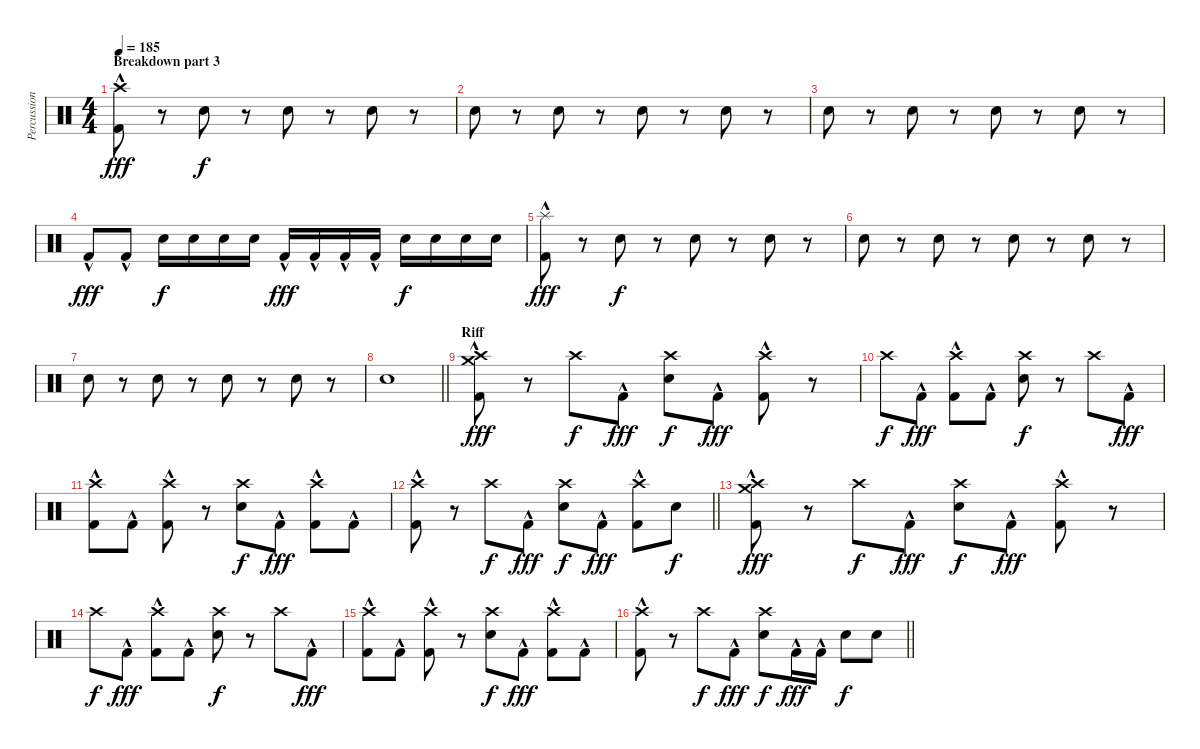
\track ("Percussion" "Percussion") {instrument percussion}
\staff {score}
\articulation defaults
\ts (4 4)
\section ("" "Breakdown part 3")
\tempo 185
\clef neutral
\ks c
("Crash high (hit)" "Kick (hit) 2"{hac}).8{dy fff} r.8 "Snare (hit) 2".8{dy f} r.8 "Snare (hit) 2".8 r.8 "Snare (hit) 2".8 r.8 |
"Snare (hit) 2".8 r.8 "Snare (hit) 2".8 r.8 "Snare (hit) 2".8 r.8 "Snare (hit) 2".8 r.8 |
"Snare (hit) 2".8 r.8 "Snare (hit) 2".8 r.8 "Snare (hit) 2".8 r.8 "Snare (hit) 2".8 r.8 |
"Kick (hit) 2"{hac}.8{dy fff} "Kick (hit) 2"{hac}.8 "Snare (hit) 2".16{dy f} "Snare (hit) 2".16 "Snare (hit) 2".16 "Snare (hit) 2".16 "Kick (hit) 2"{hac}.16{dy fff} "Kick (hit) 2"{hac}.16 "Kick (hit) 2"{hac}.16 "Kick (hit) 2"{hac}.16 "Snare (hit) 2".16{dy f} "Snare (hit) 2".16 "Snare (hit) 2".16 "Snare (hit) 2".16 |
("Splash (hit)" "Kick (hit) 2"{hac}).8{dy fff} r.8 "Snare (hit) 2".8{dy f} r.8 "Snare (hit) 2".8 r.8 "Snare (hit) 2".8 r.8 |
"Snare (hit) 2".8 r.8 "Snare (hit) 2".8 r.8 "Snare (hit) 2".8 r.8 "Snare (hit) 2".8 r.8 |
"Snare (hit) 2".8 r.8 "Snare (hit) 2".8 r.8 "Snare (hit) 2".8 r.8 "Snare (hit) 2".8 r.8 |
\barLineRight lightlight "Snare (hit) 2".1
|
\section ("" "Riff")
("Crash high (hit)" "Crash medium (hit)" "Kick (hit) 2"{hac}).8{dy fff} r.8 "Crash high (hit)".8{dy f} "Kick (hit) 2"{hac}.8{dy fff} ("Crash high (hit)" "Snare (hit) 2").8{dy f} "Kick (hit) 2"{hac}.8{dy fff} ("Crash high (hit)" "Kick (hit) 2"{hac}).8 r.8 |
"Crash high (hit)".8{dy f} "Kick (hit) 2"{hac}.8{dy fff} ("Crash high (hit)" "Kick (hit) 2"{hac}).8 "Kick (hit) 2"{hac}.8 ("Crash high (hit)" "Snare (hit) 2").8{dy f} r.8 "Crash high (hit)".8 "Kick (hit) 2"{hac}.8{dy fff} |
("Crash high (hit)" "Kick (hit) 2"{hac}).8 "Kick (hit) 2"{hac}.8 ("Crash high (hit)" "Kick (hit) 2"{hac}).8 r.8 ("Crash high (hit)" "Snare (hit) 2").8{dy f} "Kick (hit) 2"{hac}.8{dy fff} ("Crash high (hit)" "Kick (hit) 2"{hac}).8 "Kick (hit) 2"{hac}.8 |
\barLineRight lightlight
("Crash high (hit)" "Kick (hit) 2"{hac}).8 r.8 "Crash high (hit)".8{dy f} "Kick (hit) 2"{hac}.8{dy fff} ("Crash high (hit)" "Snare (hit) 2").8{dy f} "Kick (hit) 2"{hac}.8{dy fff} ("Crash high (hit)" "Kick (hit) 2"{hac}).8 "Snare (hit) 2".8{dy f} |
("Crash high (hit)" "Crash medium (hit)" "Kick (hit) 2"{hac}).8{dy fff} r.8 "Crash high (hit)".8{dy f} "Kick (hit) 2"{hac}.8{dy fff} ("Crash high (hit)" "Snare (hit) 2").8{dy f} "Kick (hit) 2"{hac}.8{dy fff} ("Crash high (hit)" "Kick (hit) 2"{hac}).8 r.8 |
"Crash high (hit)".8{dy f} "Kick (hit) 2"{hac}.8{dy fff} ("Crash high (hit)" "Kick (hit) 2"{hac}).8 "Kick (hit) 2"{hac}.8 ("Crash high (hit)" "Snare (hit) 2").8{dy f} r.8 "Crash high (hit)".8 "Kick (hit) 2"{hac}.8{dy fff} |
("Crash high (hit)" "Kick (hit) 2"{hac}).8 "Kick (hit) 2"{hac}.8 ("Crash high (hit)" "Kick (hit) 2"{hac}).8 r.8 ("Crash high (hit)" "Snare (hit) 2").8{dy f} "Kick (hit) 2"{hac}.8{dy fff} ("Crash high (hit)" "Kick (hit) 2"{hac}).8 "Kick (hit) 2"{hac}.8 |
\barLineRight lightlight
("Crash high (hit)" "Kick (hit) 2"{hac}).8 r.8 "Crash high (hit)".8{dy f} "Kick (hit) 2"{hac}.8{dy fff} ("Crash high (hit)" "Snare (hit) 2").8{dy f} "Kick (hit) 2"{hac}.16{dy fff} "Kick (hit) 2"{hac}.16 "Snare (hit) 2".8{dy f} "Snare (hit) 2".8
